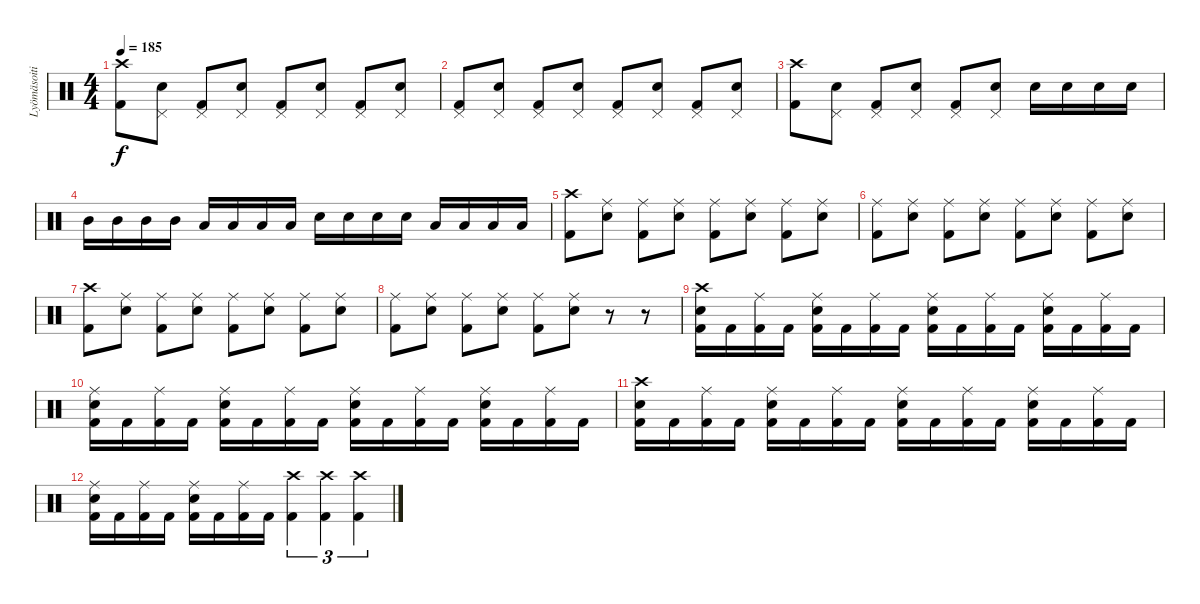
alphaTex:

\track ("Lyömäsoitin" "Lyömäsoiti") {instrument percussion}
\staff {score}
\articulation defaults
\ts (4 4)
\tempo 185
\clef neutral
\ks c
("Crash high (hit)" "Kick (hit) 2").8{dy f} ("Pedal Hi-Hat (hit)" "Electric Snare (hit)").8 ("Pedal Hi-Hat (hit)" "Kick (hit) 2").8 ("Pedal Hi-Hat (hit)" "Electric Snare (hit)").8 ("Pedal Hi-Hat (hit)" "Kick (hit) 2").8 ("Pedal Hi-Hat (hit)" "Electric Snare (hit)").8 ("Pedal Hi-Hat (hit)" "Kick (hit) 2").8 ("Pedal Hi-Hat (hit)" "Electric Snare (hit)").8 |
("Pedal Hi-Hat (hit)" "Kick (hit) 2").8 ("Pedal Hi-Hat (hit)" "Electric Snare (hit)").8 ("Pedal Hi-Hat (hit)" "Kick (hit) 2").8 ("Pedal Hi-Hat (hit)" "Electric Snare (hit)").8 ("Pedal Hi-Hat (hit)" "Kick (hit) 2").8 ("Pedal Hi-Hat (hit)" "Electric Snare (hit)").8 ("Pedal Hi-Hat (hit)" "Kick (hit) 2").8 ("Pedal Hi-Hat (hit)" "Electric Snare (hit)").8 |
("Crash high (hit)" "Kick (hit) 2").8 ("Pedal Hi-Hat (hit)" "Electric Snare (hit)").8 ("Pedal Hi-Hat (hit)" "Kick (hit) 2").8 ("Pedal Hi-Hat (hit)" "Electric Snare (hit)").8 ("Pedal Hi-Hat (hit)" "Kick (hit) 2").8 ("Pedal Hi-Hat (hit)" "Electric Snare (hit)").8 "Electric Snare (hit)".16 "Electric Snare (hit)".16 "Electric Snare (hit)".16 "Electric Snare (hit)".16 |
"Mid Tom (hit)".16 "Mid Tom (hit)".16 "Mid Tom (hit)".16 "Mid Tom (hit)".16 "Low Tom (hit)".16 "Low Tom (hit)".16 "Low Tom (hit)".16 "Low Tom (hit)".16 "Electric Snare (hit)".16 "Electric Snare (hit)".16 "Electric Snare (hit)".16 "Electric Snare (hit)".16 "Low Tom (hit)".16 "Low Tom (hit)".16 "Low Tom (hit)".16 "Low Tom (hit)".16 |
("Crash high (hit)" "Kick (hit) 2").8 ("Ride (middle)" "Electric Snare (hit)").8 ("Ride (middle)" "Kick (hit) 2").8 ("Ride (middle)" "Electric Snare (hit)").8 ("Ride (middle)" "Kick (hit) 2").8 ("Ride (middle)" "Electric Snare (hit)").8 ("Ride (middle)" "Kick (hit) 2").8 ("Ride (middle)" "Electric Snare (hit)").8 |
("Ride (middle)" "Kick (hit) 2").8 ("Ride (middle)" "Electric Snare (hit)").8 ("Ride (middle)" "Kick (hit) 2").8 ("Ride (middle)" "Electric Snare (hit)").8 ("Ride (middle)" "Kick (hit) 2").8 ("Ride (middle)" "Electric Snare (hit)").8 ("Ride (middle)" "Kick (hit) 2").8 ("Ride (middle)" "Electric Snare (hit)").8 |
("Crash high (hit)" "Kick (hit) 2").8 ("Ride (middle)" "Electric Snare (hit)").8 ("Ride (middle)" "Kick (hit) 2").8 ("Ride (middle)" "Electric Snare (hit)").8 ("Ride (middle)" "Kick (hit) 2").8 ("Ride (middle)" "Electric Snare (hit)").8 ("Ride (middle)" "Kick (hit) 2").8 ("Ride (middle)" "Electric Snare (hit)").8 |
("Ride (middle)" "Kick (hit) 2").8 ("Ride (middle)" "Electric Snare (hit)").8 ("Ride (middle)" "Kick (hit) 2").8 ("Ride (middle)" "Electric Snare (hit)").8 ("Ride (middle)" "Kick (hit) 2").8 ("Ride (middle)" "Electric Snare (hit)").8 r.8 r.8 |
("Crash high (hit)" "Electric Snare (hit)" "Kick (hit) 2").16 "Kick (hit) 2".16 ("Ride (middle)" "Kick (hit) 2").16 "Kick (hit) 2".16 ("Ride (middle)" "Electric Snare (hit)" "Kick (hit) 2").16 "Kick (hit) 2".16 ("Ride (middle)" "Kick (hit) 2").16 "Kick (hit) 2".16 ("Ride (middle)" "Electric Snare (hit)" "Kick (hit) 2").16 "Kick (hit) 2".16 ("Ride (middle)" "Kick (hit) 2").16 "Kick (hit) 2".16 ("Ride (middle)" "Electric Snare (hit)" "Kick (hit) 2").16 "Kick (hit) 2".16 ("Ride (middle)" "Kick (hit) 2").16 "Kick (hit) 2".16 |
("Ride (middle)" "Electric Snare (hit)" "Kick (hit) 2").16 "Kick (hit) 2".16 ("Ride (middle)" "Kick (hit) 2").16 "Kick (hit) 2".16 ("Ride (middle)" "Electric Snare (hit)" "Kick (hit) 2").16 "Kick (hit) 2".16 ("Ride (middle)" "Kick (hit) 2").16 "Kick (hit) 2".16 ("Ride (middle)" "Electric Snare (hit)" "Kick (hit) 2").16 "Kick (hit) 2".16 ("Ride (middle)" "Kick (hit) 2").16 "Kick (hit) 2".16 ("Ride (middle)" "Electric Snare (hit)" "Kick (hit) 2").16 "Kick (hit) 2".16 ("Ride (middle)" "Kick (hit) 2").16 "Kick (hit) 2".16 |
("Crash high (hit)" "Electric Snare (hit)" "Kick (hit) 2").16 "Kick (hit) 2".16 ("Ride (middle)" "Kick (hit) 2").16 "Kick (hit) 2".16 ("Ride (middle)" "Electric Snare (hit)" "Kick (hit) 2").16 "Kick (hit) 2".16 ("Ride (middle)" "Kick (hit) 2").16 "Kick (hit) 2".16 ("Ride (middle)" "Electric Snare (hit)" "Kick (hit) 2").16 "Kick (hit) 2".16 ("Ride (middle)" "Kick (hit) 2").16 "Kick (hit) 2".16 ("Ride (middle)" "Electric Snare (hit)" "Kick (hit) 2").16 "Kick (hit) 2".16 ("Ride (middle)" "Kick (hit) 2").16 "Kick (hit) 2".16 |
("Ride (middle)" "Electric Snare (hit)" "Kick (hit) 2").16 "Kick (hit) 2".16 ("Ride (middle)" "Kick (hit) 2").16 "Kick (hit) 2".16 ("Ride (middle)" "Electric Snare (hit)" "Kick (hit) 2").16 "Kick (hit) 2".16 ("Ride (middle)" "Kick (hit) 2").16 "Kick (hit) 2".16 ("Crash high (hit)" "Kick (hit) 2").4{tu (3 2)} ("Crash high (hit)" "Kick (hit) 2").4{tu (3 2)} ("Crash high (hit)" "Kick (hit) 2").4{tu (3 2)}
